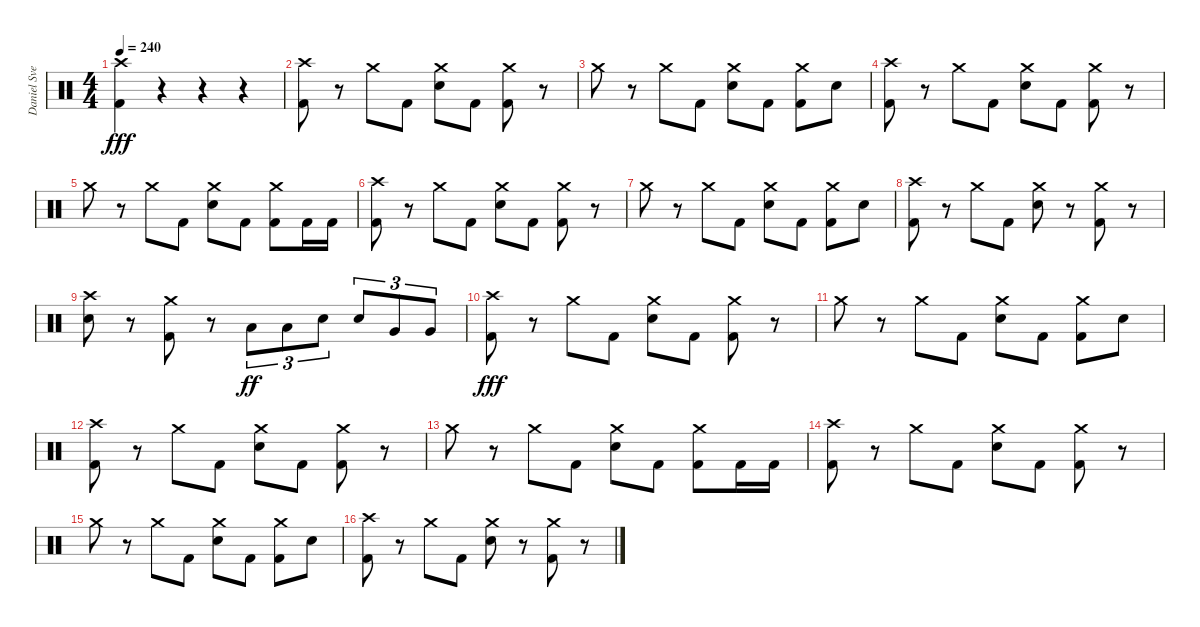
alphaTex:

\track ("Daniel Svensson" "Daniel Sve") {instrument percussion}
\staff {score}
\articulation defaults
\ts (4 4)
\tempo 240
\clef neutral
\ks c
("Crash high (hit)" "Kick (hit) 2").4{dy fff} r.4 r.4 r.4 |
("Crash high (hit)" "Kick (hit) 2").8 r.8 "Crash medium (hit)".8 "Kick (hit) 2".8 ("Crash medium (hit)" "Electric Snare (hit)").8 "Kick (hit) 2".8 ("Crash medium (hit)" "Kick (hit) 2").8 r.8 |
"Crash medium (hit)".8 r.8 "Crash medium (hit)".8 "Kick (hit) 2".8 ("Crash medium (hit)" "Electric Snare (hit)").8 "Kick (hit) 2".8 ("Crash medium (hit)" "Kick (hit) 2").8 "Electric Snare (hit)".8 |
("Crash high (hit)" "Kick (hit) 2").8 r.8 "Crash medium (hit)".8 "Kick (hit) 2".8 ("Crash medium (hit)" "Electric Snare (hit)").8 "Kick (hit) 2".8 ("Crash medium (hit)" "Kick (hit) 2").8 r.8 |
"Crash medium (hit)".8 r.8 "Crash medium (hit)".8 "Kick (hit) 2".8 ("Crash medium (hit)" "Electric Snare (hit)").8 "Kick (hit) 2".8 ("Crash medium (hit)" "Kick (hit) 2").8 "Kick (hit) 2".16 "Kick (hit) 2".16 |
("Crash high (hit)" "Kick (hit) 2").8 r.8 "Crash medium (hit)".8 "Kick (hit) 2".8 ("Crash medium (hit)" "Electric Snare (hit)").8 "Kick (hit) 2".8 ("Crash medium (hit)" "Kick (hit) 2").8 r.8 |
"Crash medium (hit)".8 r.8 "Crash medium (hit)".8 "Kick (hit) 2".8 ("Crash medium (hit)" "Electric Snare (hit)").8 "Kick (hit) 2".8 ("Crash medium (hit)" "Kick (hit) 2").8 "Electric Snare (hit)".8 |
("Crash high (hit)" "Kick (hit) 2").8 r.8 "Crash medium (hit)".8 "Kick (hit) 2".8 ("Crash medium (hit)" "Electric Snare (hit)").8 r.8 ("Crash medium (hit)" "Kick (hit) 2").8 r.8 |
("Crash high (hit)" "Electric Snare (hit)").8 r.8 ("Crash medium (hit)" "Kick (hit) 2").8 r.8 "Low Floor Tom (hit)".8{tu (3 2) dy ff} "Low Floor Tom (hit)".8{tu (3 2)} "Electric Snare (hit)".8{tu (3 2)} "Electric Snare (hit)".8{tu (3 2)} "Very Low Tom (hit)".8{tu (3 2)} "Very Low Tom (hit)".8{tu (3 2)} |
("Crash high (hit)" "Kick (hit) 2").8{dy fff} r.8 "Crash medium (hit)".8 "Kick (hit) 2".8 ("Crash medium (hit)" "Electric Snare (hit)").8 "Kick (hit) 2".8 ("Crash medium (hit)" "Kick (hit) 2").8 r.8 |
"Crash medium (hit)".8 r.8 "Crash medium (hit)".8 "Kick (hit) 2".8 ("Crash medium (hit)" "Electric Snare (hit)").8 "Kick (hit) 2".8 ("Crash medium (hit)" "Kick (hit) 2").8 "Electric Snare (hit)".8 |
("Crash high (hit)" "Kick (hit) 2").8 r.8 "Crash medium (hit)".8 "Kick (hit) 2".8 ("Crash medium (hit)" "Electric Snare (hit)").8 "Kick (hit) 2".8 ("Crash medium (hit)" "Kick (hit) 2").8 r.8 |
"Crash medium (hit)".8 r.8 "Crash medium (hit)".8 "Kick (hit) 2".8 ("Crash medium (hit)" "Electric Snare (hit)").8 "Kick (hit) 2".8 ("Crash medium (hit)" "Kick (hit) 2").8 "Kick (hit) 2".16 "Kick (hit) 2".16 |
("Crash high (hit)" "Kick (hit) 2").8 r.8 "Crash medium (hit)".8 "Kick (hit) 2".8 ("Crash medium (hit)" "Electric Snare (hit)").8 "Kick (hit) 2".8 ("Crash medium (hit)" "Kick (hit) 2").8 r.8 |
"Crash medium (hit)".8 r.8 "Crash medium (hit)".8 "Kick (hit) 2".8 ("Crash medium (hit)" "Electric Snare (hit)").8 "Kick (hit) 2".8 ("Crash medium (hit)" "Kick (hit) 2").8 "Electric Snare (hit)".8 |
("Crash high (hit)" "Kick (hit) 2").8 r.8 "Crash medium (hit)".8 "Kick (hit) 2".8 ("Crash medium (hit)" "Electric Snare (hit)").8 r.8 ("Crash medium (hit)" "Kick (hit) 2").8 r.8
